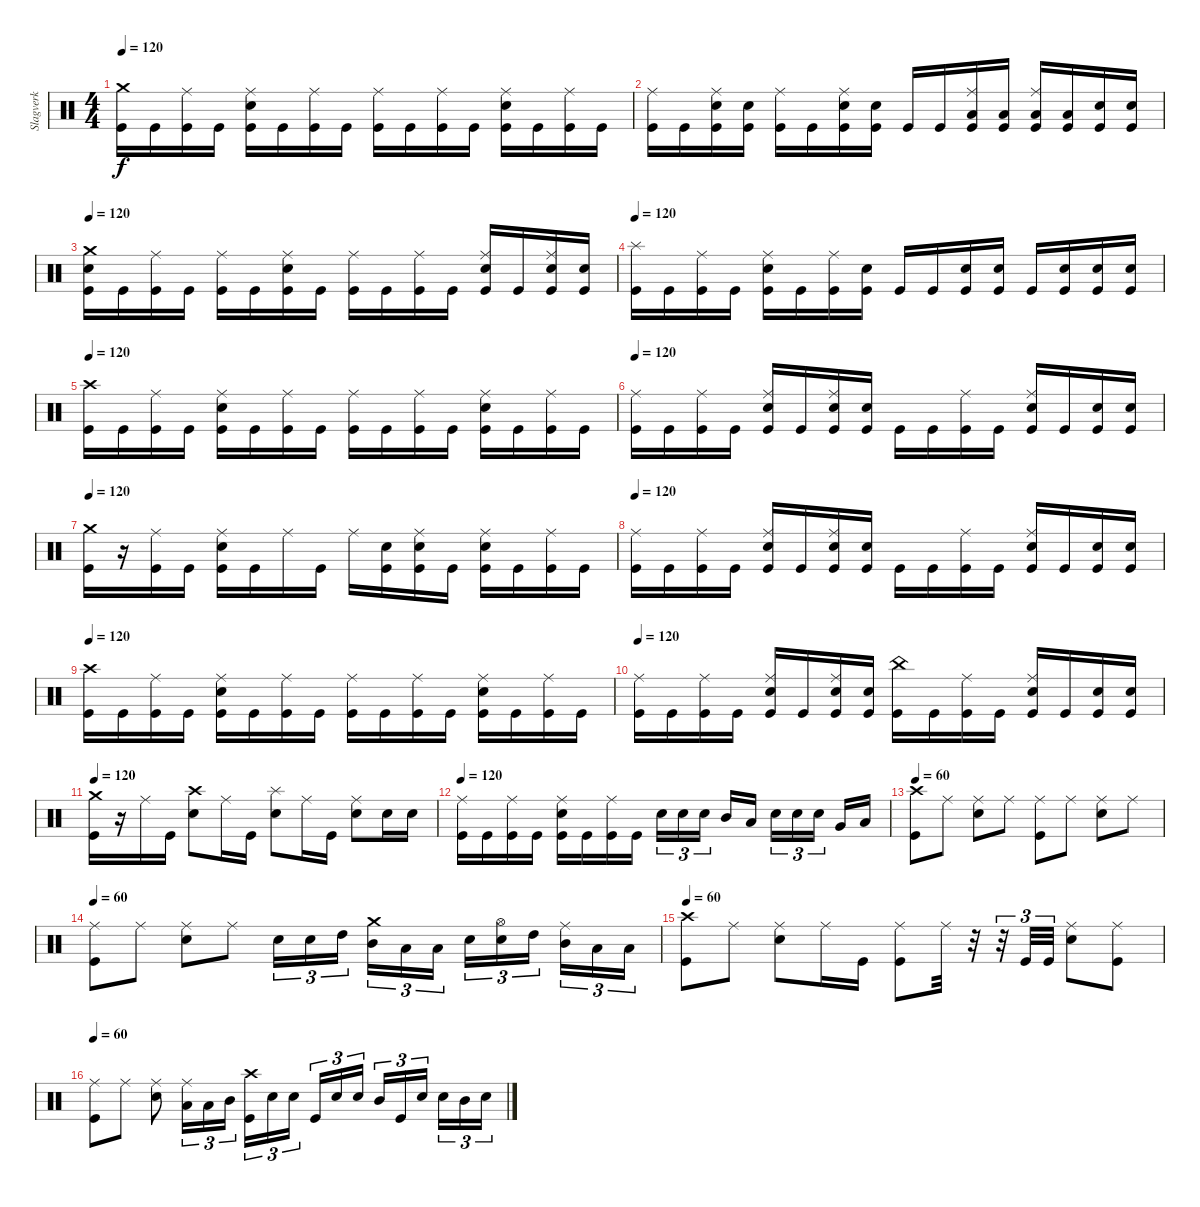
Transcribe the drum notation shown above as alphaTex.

\track ("Slagverk" "Slagverk") {instrument percussion}
\staff {score}
\articulation defaults
\ts (4 4)
\tempo 120
\clef neutral
\ks c
("Crash medium (hit)" "Kick (hit)").16{dy f} "Kick (hit)".16 ("Ride (middle)" "Kick (hit)").16 "Kick (hit)".16 ("Ride (middle)" "Electric Snare (hit)" "Kick (hit)").16 "Kick (hit)".16 ("Ride (middle)" "Kick (hit)").16 "Kick (hit)".16 ("Ride (middle)" "Kick (hit)").16 "Kick (hit)".16 ("Ride (middle)" "Kick (hit)").16 "Kick (hit)".16 ("Ride (middle)" "Electric Snare (hit)" "Kick (hit)").16 "Kick (hit)".16 ("Ride (middle)" "Kick (hit)").16 "Kick (hit)".16 |
("Ride (middle)" "Kick (hit)").16 "Kick (hit)".16 ("Ride (middle)" "Electric Snare (hit)" "Kick (hit)").16 ("Electric Snare (hit)" "Kick (hit)").16 ("Ride (middle)" "Kick (hit)").16 "Kick (hit)".16 ("Ride (middle)" "Electric Snare (hit)" "Kick (hit)").16 ("Electric Snare (hit)" "Kick (hit)").16 "Kick (hit)".16 "Kick (hit)".16 ("Ride (middle)" "Low Tom (hit)" "Kick (hit)").16 ("Low Tom (hit)" "Kick (hit)").16 ("Ride (middle)" "Low Floor Tom (hit)" "Kick (hit)").16 ("Low Floor Tom (hit)" "Kick (hit)").16 ("Electric Snare (hit)" "Kick (hit)").16 ("Electric Snare (hit)" "Kick (hit)").16 |
\tempo 120
("Crash medium (hit)" "Electric Snare (hit)" "Kick (hit)").16 "Kick (hit)".16 ("Ride (middle)" "Kick (hit)").16 "Kick (hit)".16 ("Ride (middle)" "Kick (hit)").16 "Kick (hit)".16 ("Ride (middle)" "Electric Snare (hit)" "Kick (hit)").16 "Kick (hit)".16 ("Ride (middle)" "Kick (hit)").16 "Kick (hit)".16 ("Ride (middle)" "Kick (hit)").16 "Kick (hit)".16 ("Ride (middle)" "Electric Snare (hit)" "Kick (hit)").16 "Kick (hit)".16 ("Ride (middle)" "Electric Snare (hit)" "Kick (hit)").16 ("Electric Snare (hit)" "Kick (hit)").16 |
\tempo 120
("Splash (hit)" "Kick (hit)").16 "Kick (hit)".16 ("Ride (middle)" "Kick (hit)").16 "Kick (hit)".16 ("Ride (middle)" "Electric Snare (hit)" "Kick (hit)").16 "Kick (hit)".16 ("Ride (middle)" "Kick (hit)").16 ("Electric Snare (hit)" "Kick (hit)").16 "Kick (hit)".16 "Kick (hit)".16 ("Electric Snare (hit)" "Kick (hit)").16 ("Electric Snare (hit)" "Kick (hit)").16 "Kick (hit)".16 ("Electric Snare (hit)" "Kick (hit)").16 ("Electric Snare (hit)" "Kick (hit)").16 ("Electric Snare (hit)" "Kick (hit)").16 |
\tempo 120
("Crash high (hit)" "Kick (hit)").16 "Kick (hit)".16 ("Ride (middle)" "Kick (hit)").16 "Kick (hit)".16 ("Ride (middle)" "Electric Snare (hit)" "Kick (hit)").16 "Kick (hit)".16 ("Ride (middle)" "Kick (hit)").16 "Kick (hit)".16 ("Ride (middle)" "Kick (hit)").16 "Kick (hit)".16 ("Ride (middle)" "Kick (hit)").16 "Kick (hit)".16 ("Ride (middle)" "Electric Snare (hit)" "Kick (hit)").16 "Kick (hit)".16 ("Ride (middle)" "Kick (hit)").16 "Kick (hit)".16 |
\tempo 120
("Ride (middle)" "Kick (hit)").16 "Kick (hit)".16 ("Ride (middle)" "Kick (hit)").16 "Kick (hit)".16 ("Ride (middle)" "Electric Snare (hit)" "Kick (hit)").16 "Kick (hit)".16 ("Ride (middle)" "Electric Snare (hit)" "Kick (hit)").16 ("Electric Snare (hit)" "Kick (hit)").16 "Kick (hit)".16 "Kick (hit)".16 ("Ride (middle)" "Kick (hit)").16 "Kick (hit)".16 ("Ride (middle)" "Electric Snare (hit)" "Kick (hit)").16 "Kick (hit)".16 ("Electric Snare (hit)" "Kick (hit)").16 ("Electric Snare (hit)" "Kick (hit)").16 |
\tempo 120
("Crash medium (hit)" "Kick (hit)").16 r.16 ("Ride (middle)" "Kick (hit)").16 "Kick (hit)".16 ("Ride (middle)" "Electric Snare (hit)" "Kick (hit)").16 "Kick (hit)".16 "Ride (middle)".16 "Kick (hit)".16 "Ride (middle)".16 ("Electric Snare (hit)" "Kick (hit)").16 ("Ride (middle)" "Electric Snare (hit)" "Kick (hit)").16 "Kick (hit)".16 ("Ride (middle)" "Electric Snare (hit)" "Kick (hit)").16 "Kick (hit)".16 ("Ride (middle)" "Kick (hit)").16 "Kick (hit)".16 |
\tempo 120
("Ride (middle)" "Kick (hit)").16 "Kick (hit)".16 ("Ride (middle)" "Kick (hit)").16 "Kick (hit)".16 ("Ride (middle)" "Electric Snare (hit)" "Kick (hit)").16 "Kick (hit)".16 ("Ride (middle)" "Electric Snare (hit)" "Kick (hit)").16 ("Electric Snare (hit)" "Kick (hit)").16 "Kick (hit)".16 "Kick (hit)".16 ("Ride (middle)" "Kick (hit)").16 "Kick (hit)".16 ("Ride (middle)" "Electric Snare (hit)" "Kick (hit)").16 "Kick (hit)".16 ("Electric Snare (hit)" "Kick (hit)").16 ("Electric Snare (hit)" "Kick (hit)").16 |
\tempo 120
("Crash high (hit)" "Kick (hit)").16 "Kick (hit)".16 ("Ride (middle)" "Kick (hit)").16 "Kick (hit)".16 ("Ride (middle)" "Electric Snare (hit)" "Kick (hit)").16 "Kick (hit)".16 ("Ride (middle)" "Kick (hit)").16 "Kick (hit)".16 ("Ride (middle)" "Kick (hit)").16 "Kick (hit)".16 ("Ride (middle)" "Kick (hit)").16 "Kick (hit)".16 ("Ride (middle)" "Electric Snare (hit)" "Kick (hit)").16 "Kick (hit)".16 ("Ride (middle)" "Kick (hit)").16 "Kick (hit)".16 |
\tempo 120
("Ride (middle)" "Kick (hit)").16 "Kick (hit)".16 ("Ride (middle)" "Kick (hit)").16 "Kick (hit)".16 ("Ride (middle)" "Electric Snare (hit)" "Kick (hit)").16 "Kick (hit)".16 ("Ride (middle)" "Electric Snare (hit)" "Kick (hit)").16 ("Electric Snare (hit)" "Kick (hit)").16 ("China (hit)" "Kick (hit)").16 "Kick (hit)".16 ("Ride (middle)" "Kick (hit)").16 "Kick (hit)".16 ("Ride (middle)" "Electric Snare (hit)" "Kick (hit)").16 "Kick (hit)".16 ("Electric Snare (hit)" "Kick (hit)").16 ("Electric Snare (hit)" "Kick (hit)").16 |
\tempo 120
("Crash medium (hit)" "Kick (hit)").16 r.16 "Ride (middle)".16 "Kick (hit)".16 ("Crash high (hit)" "Electric Snare (hit)").8 "Ride (middle)".16 "Kick (hit)".16 ("Splash (hit)" "Electric Snare (hit)").8 "Ride (middle)".16 "Kick (hit)".16 ("Ride (middle)" "Electric Snare (hit)").8 "Electric Snare (hit)".16 "Electric Snare (hit)".16 |
\tempo 120
("Ride (middle)" "Kick (hit)").16 "Kick (hit)".16 ("Ride (middle)" "Kick (hit)").16 "Kick (hit)".16 ("Ride (middle)" "Electric Snare (hit)" "Kick (hit)").16 "Kick (hit)".16 ("Ride (middle)" "Kick (hit)").16 "Kick (hit)".16 "Electric Snare (hit)".16{tu (3 2)} "Electric Snare (hit)".16{tu (3 2)} "Electric Snare (hit)".16{tu (3 2)} "Mid Tom (hit)".16 "Low Tom (hit)".16 "Electric Snare (hit)".16{tu (3 2)} "Electric Snare (hit)".16{tu (3 2)} "Electric Snare (hit)".16{tu (3 2)} "Very Low Tom (hit)".16 "Low Floor Tom (hit)".16 |
\tempo 60
("Crash high (hit)" "Kick (hit)").8 "Ride (middle)".8 ("Ride (middle)" "Electric Snare (hit)").8 "Ride (middle)".8 ("Ride (middle)" "Kick (hit)").8 "Ride (middle)".8 ("Ride (middle)" "Electric Snare (hit)").8 "Ride (middle)".8 |
\tempo 60
("Ride (middle)" "Kick (hit)").8 "Ride (middle)".8 ("Ride (middle)" "Electric Snare (hit)").8 "Ride (middle)".8 "Electric Snare (hit)".16{tu (3 2)} "Electric Snare (hit)".16{tu (3 2)} "High Tom (hit)".16{tu (3 2)} ("Crash medium (hit)" "Mid Tom (hit)").16{tu (3 2)} "Low Floor Tom (hit)".16{tu (3 2)} "Low Tom (hit)".16{tu (3 2)} "Electric Snare (hit)".16{tu (3 2)} ("Hi-Hat (open)" "Electric Snare (hit)").16{tu (3 2)} "High Tom (hit)".16{tu (3 2)} ("Ride (middle)" "Mid Tom (hit)").16{tu (3 2)} "Low Tom (hit)".16{tu (3 2)} "Low Floor Tom (hit)".16{tu (3 2)} |
\tempo 60
("Crash high (hit)" "Kick (hit)").8 "Ride (middle)".8 ("Ride (middle)" "Electric Snare (hit)").8 "Ride (middle)".16 "Kick (hit)".16 ("Ride (middle)" "Kick (hit)").8 "Ride (middle)".32 r.32 r.32{tu (3 2)} "Kick (hit)".32{tu (3 2)} "Kick (hit)".32{tu (3 2)} ("Ride (middle)" "Electric Snare (hit)").8 ("Ride (middle)" "Kick (hit)").8 |
\tempo 60
("Ride (middle)" "Kick (hit)").8 "Ride (middle)".8 ("Ride (middle)" "Electric Snare (hit)").8 ("Ride (middle)" "Low Tom (hit)").16{tu (3 2)} "Low Tom (hit)".16{tu (3 2)} "Mid Tom (hit)".16{tu (3 2)} ("Crash high (hit)" "Kick (hit)").16{tu (3 2)} "Electric Snare (hit)".16{tu (3 2)} "Electric Snare (hit)".16{tu (3 2)} "Kick (hit)".16{tu (3 2)} "Electric Snare (hit)".16{tu (3 2)} "Electric Snare (hit)".16{tu (3 2)} "Mid Tom (hit)".16{tu (3 2)} "Kick (hit)".16{tu (3 2)} "Electric Snare (hit)".16{tu (3 2)} "Electric Snare (hit)".16{tu (3 2)} "Mid Tom (hit)".16{tu (3 2)} "Electric Snare (hit)".16{tu (3 2)}
